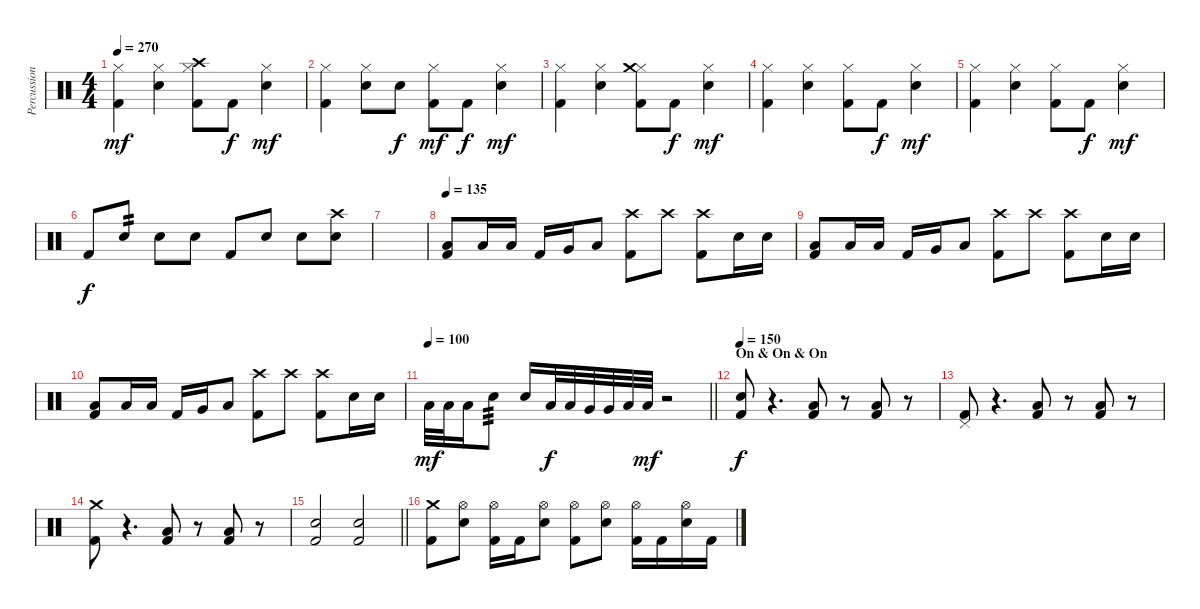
\track ("Percussion" "Percussion") {instrument percussion}
\staff {score}
\articulation defaults
\ts (4 4)
\tempo 270
\clef neutral
\ks c
("Hi-Hat (closed)" "Kick (hit) 2").4{dy mf} ("Hi-Hat (closed)" "Electric Snare (hit)").4 ("Hi-Hat (closed)" "Crash high (hit)" "Kick (hit) 2").8 "Kick (hit) 2".8{dy f} ("Hi-Hat (closed)" "Electric Snare (hit)").4{dy mf} |
("Hi-Hat (closed)" "Kick (hit) 2").4 ("Hi-Hat (closed)" "Electric Snare (hit)").8 "Electric Snare (hit)".8{dy f} ("Hi-Hat (closed)" "Kick (hit) 2").8{dy mf} "Kick (hit) 2".8{dy f} ("Hi-Hat (closed)" "Electric Snare (hit)").4{dy mf} |
("Hi-Hat (closed)" "Kick (hit) 2").4 ("Hi-Hat (closed)" "Electric Snare (hit)").4 ("Hi-Hat (closed)" "Crash medium (hit)" "Kick (hit) 2").8 "Kick (hit) 2".8{dy f} ("Hi-Hat (closed)" "Electric Snare (hit)").4{dy mf} |
("Hi-Hat (closed)" "Kick (hit) 2").4 ("Hi-Hat (closed)" "Electric Snare (hit)").4 ("Hi-Hat (closed)" "Kick (hit) 2").8 "Kick (hit) 2".8{dy f} ("Hi-Hat (closed)" "Electric Snare (hit)").4{dy mf} |
("Hi-Hat (closed)" "Kick (hit) 2").4 ("Hi-Hat (closed)" "Electric Snare (hit)").4 ("Hi-Hat (closed)" "Kick (hit) 2").8 "Kick (hit) 2".8{dy f} ("Hi-Hat (closed)" "Electric Snare (hit)").4{dy mf} |
"Kick (hit) 2".8{dy f} "Electric Snare (hit)".8{tp 2} "Electric Snare (hit)".8 "Electric Snare (hit)".8 "Kick (hit) 2".8 "Electric Snare (hit)".8 "Electric Snare (hit)".8 ("Crash high (hit)" "Electric Snare (hit)").8 |
|
\tempo 135
("Low Tom (hit)" "Kick (hit) 2").8 "Low Tom (hit)".16 "Low Tom (hit)".16 "Kick (hit) 2".16 "Very Low Tom (hit)".16 "Low Floor Tom (hit)".8 ("Crash high (hit)" "Kick (hit) 2").8 "Crash high (hit)".8 ("Crash high (hit)" "Kick (hit) 2").8 "Electric Snare (hit)".16 "Electric Snare (hit)".16 |
("Low Tom (hit)" "Kick (hit) 2").8 "Low Tom (hit)".16 "Low Tom (hit)".16 "Kick (hit) 2".16 "Very Low Tom (hit)".16 "Low Floor Tom (hit)".8 ("Crash high (hit)" "Kick (hit) 2").8 "Crash high (hit)".8 ("Crash high (hit)" "Kick (hit) 2").8 "Electric Snare (hit)".16 "Electric Snare (hit)".16 |
("Low Tom (hit)" "Kick (hit) 2").8 "Low Tom (hit)".16 "Low Tom (hit)".16 "Kick (hit) 2".16 "Very Low Tom (hit)".16 "Low Floor Tom (hit)".8 ("Crash high (hit)" "Kick (hit) 2").8 "Crash high (hit)".8 ("Crash high (hit)" "Kick (hit) 2").8 "Electric Snare (hit)".16 "Electric Snare (hit)".16 |
\tempo 100
\barLineRight lightlight "Low Tom (hit)".32{dy mf} "Low Tom (hit)".32 "Low Tom (hit)".16 "Electric Snare (hit)".8{tp 3} "Electric Snare (hit)".16 "Low Tom (hit)".32{dy f} "Low Tom (hit)".32 "Very Low Tom (hit)".32 "Very Low Tom (hit)".32 "Low Floor Tom (hit)".32 "Low Floor Tom (hit)".32{dy mf}
r.2 |
\section ("" "On & On & On")
\tempo 150
("Electric Snare (hit)" "Kick (hit) 2").8{dy f} r.4{d} ("Low Floor Tom (hit)" "Kick (hit) 2").8 r.8 ("Low Floor Tom (hit)" "Kick (hit) 2").8 r.8 |
("Pedal Hi-Hat (hit)" "Kick (hit) 2").8 r.4{d} ("Low Floor Tom (hit)" "Kick (hit) 2").8 r.8 ("Low Floor Tom (hit)" "Kick (hit) 2").8 r.8 |
("Crash medium (hit)" "Kick (hit) 2").8 r.4{d} ("Low Floor Tom (hit)" "Kick (hit) 2").8 r.8 ("Low Floor Tom (hit)" "Kick (hit) 2").8 r.8 |
\barLineRight lightlight
("Electric Snare (hit)" "Kick (hit) 2").2 ("Electric Snare (hit)" "Kick (hit) 2").2 |
("Crash medium (hit)" "Kick (hit) 2").8 ("Hi-Hat (open)" "Electric Snare (hit)").8 ("Hi-Hat (open)" "Kick (hit) 2").16 "Kick (hit) 2".16 ("Hi-Hat (open)" "Electric Snare (hit)").8 ("Hi-Hat (open)" "Kick (hit) 2").8 ("Hi-Hat (open)" "Electric Snare (hit)").8 ("Hi-Hat (open)" "Kick (hit) 2").16 "Kick (hit) 2".16 ("Hi-Hat (open)" "Electric Snare (hit)").16 "Kick (hit) 2".16
